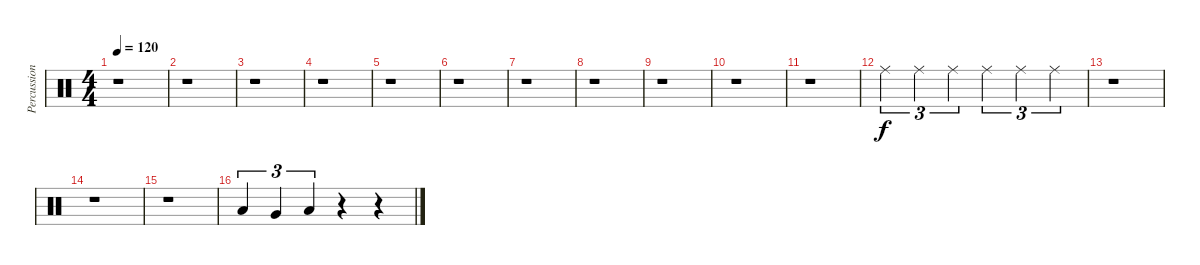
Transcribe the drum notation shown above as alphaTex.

\track ("Percussions" "Percussion") {instrument percussion}
\staff {score}
\articulation defaults
\ts (4 4)
\tempo 120
\clef neutral
\ks c
r.1{dy f} |
r.1 |
r.1 |
r.1 |
r.1 |
r.1 |
r.1 |
r.1 |
r.1 |
r.1 |
r.1 |
"Ride (middle)".4{tu (3 2)} "Ride (middle)".4{tu (3 2)} "Ride (middle)".4{tu (3 2)} "Ride (middle)".4{tu (3 2)} "Ride (middle)".4{tu (3 2)} "Ride (middle)".4{tu (3 2)} |
r.1 |
r.1 |
r.1 |
"Low Tom (hit)".4{tu (3 2)} "Very Low Tom (hit)".4{tu (3 2)} "Low Floor Tom (hit)".4{tu (3 2)} r.4 r.4
